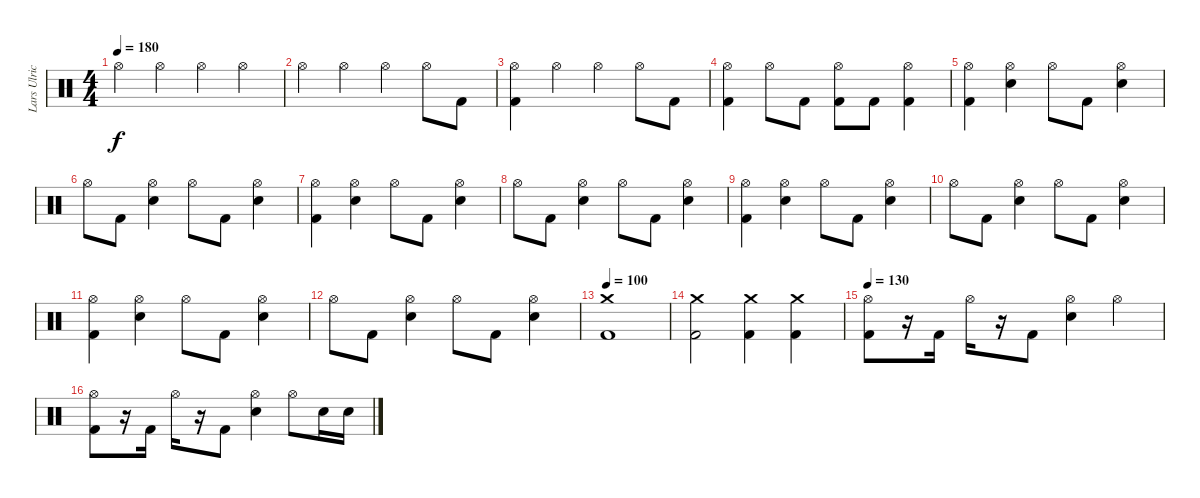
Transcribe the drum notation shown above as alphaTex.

\track ("Lars Ulrich" "Lars Ulric") {instrument percussion}
\staff {score}
\articulation defaults
\ts (4 4)
\tempo 180
\clef neutral
\ks c "Hi-Hat (open)".4{dy f} "Hi-Hat (open)".4 "Hi-Hat (open)".4 "Hi-Hat (open)".4
|
"Hi-Hat (open)".4 "Hi-Hat (open)".4 "Hi-Hat (open)".4 "Hi-Hat (open)".8 "Kick (hit) 2".8 |
("Hi-Hat (open)" "Kick (hit) 2").4 "Hi-Hat (open)".4 "Hi-Hat (open)".4 "Hi-Hat (open)".8 "Kick (hit) 2".8 |
("Hi-Hat (open)" "Kick (hit) 2").4 "Hi-Hat (open)".8 "Kick (hit) 2".8 ("Hi-Hat (open)" "Kick (hit) 2").8 "Kick (hit) 2".8 ("Hi-Hat (open)" "Kick (hit) 2").4 |
("Hi-Hat (open)" "Kick (hit) 2").4 ("Hi-Hat (open)" "Electric Snare (hit)").4 "Hi-Hat (open)".8 "Kick (hit) 2".8 ("Hi-Hat (open)" "Electric Snare (hit)").4 |
"Hi-Hat (open)".8 "Kick (hit) 2".8 ("Hi-Hat (open)" "Electric Snare (hit)").4 "Hi-Hat (open)".8 "Kick (hit) 2".8 ("Hi-Hat (open)" "Electric Snare (hit)").4 |
("Hi-Hat (open)" "Kick (hit) 2").4 ("Hi-Hat (open)" "Electric Snare (hit)").4 "Hi-Hat (open)".8 "Kick (hit) 2".8 ("Hi-Hat (open)" "Electric Snare (hit)").4 |
"Hi-Hat (open)".8 "Kick (hit) 2".8 ("Hi-Hat (open)" "Electric Snare (hit)").4 "Hi-Hat (open)".8 "Kick (hit) 2".8 ("Hi-Hat (open)" "Electric Snare (hit)").4 |
("Hi-Hat (open)" "Kick (hit) 2").4 ("Hi-Hat (open)" "Electric Snare (hit)").4 "Hi-Hat (open)".8 "Kick (hit) 2".8 ("Hi-Hat (open)" "Electric Snare (hit)").4 |
"Hi-Hat (open)".8 "Kick (hit) 2".8 ("Hi-Hat (open)" "Electric Snare (hit)").4 "Hi-Hat (open)".8 "Kick (hit) 2".8 ("Hi-Hat (open)" "Electric Snare (hit)").4 |
("Hi-Hat (open)" "Kick (hit) 2").4 ("Hi-Hat (open)" "Electric Snare (hit)").4 "Hi-Hat (open)".8 "Kick (hit) 2".8 ("Hi-Hat (open)" "Electric Snare (hit)").4 |
"Hi-Hat (open)".8 "Kick (hit) 2".8 ("Hi-Hat (open)" "Electric Snare (hit)").4 "Hi-Hat (open)".8 "Kick (hit) 2".8 ("Hi-Hat (open)" "Electric Snare (hit)").4 |
\tempo 100
("Crash medium (hit)" "Kick (hit) 2").1 |
("Crash medium (hit)" "Kick (hit) 2").2 ("Crash medium (hit)" "Kick (hit) 2").4 ("Crash medium (hit)" "Kick (hit) 2").4 |
\tempo 130
("Hi-Hat (open)" "Kick (hit) 2").8 r.16 "Kick (hit) 2".16 "Hi-Hat (open)".16 r.16 "Kick (hit) 2".8 ("Hi-Hat (open)" "Electric Snare (hit)").4 "Hi-Hat (open)".4 |
("Hi-Hat (open)" "Kick (hit) 2").8 r.16 "Kick (hit) 2".16 "Hi-Hat (open)".16 r.16 "Kick (hit) 2".8 ("Hi-Hat (open)" "Electric Snare (hit)").4 "Hi-Hat (open)".8 "Electric Snare (hit)".16 "Electric Snare (hit)".16
